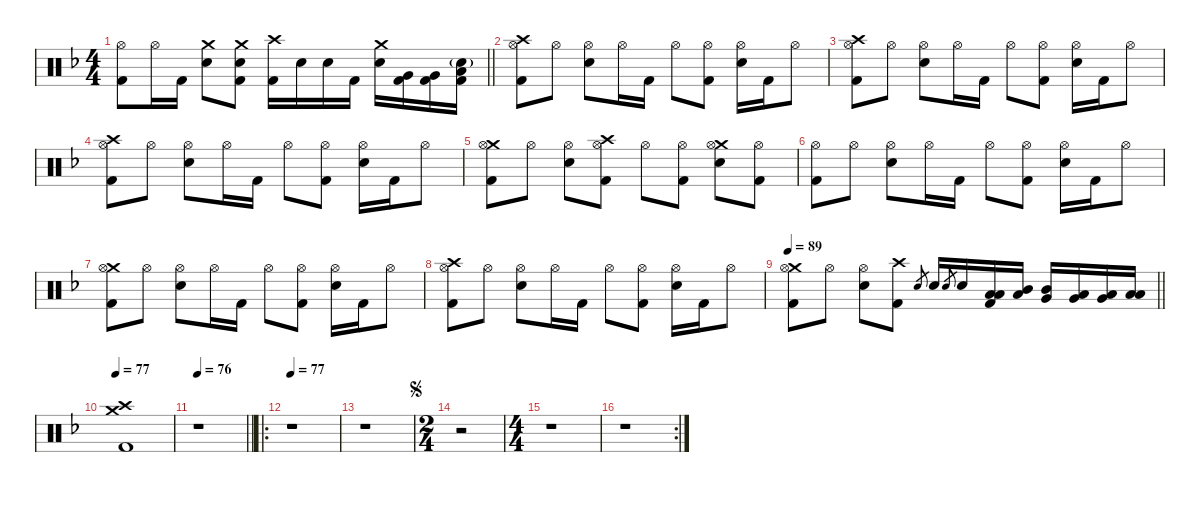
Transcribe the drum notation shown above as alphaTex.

\defaultSystemsLayout 4
\hideDynamics
\bracketExtendMode nobrackets
\singleTrackTrackNamePolicy hidden
\multiTrackTrackNamePolicy hidden
\otherSystemsTrackNameOrientation horizontal
\track ("Martin Lopez - Drums" "drm.") {defaultSystemsLayout 4 instrument percussion}
\staff {score}
\articulation defaults
\ts (4 4)
\tempo (88 hide)
\tempo (89 0.00625 hide)
\clef neutral
\barLineRight lightlight
\ks dminor
("Hi-Hat (open)"{acc forcenatural} "Kick (hit) 2"{acc forcenatural}).8{dy f beam Down} "Hi-Hat (open)"{acc forcenatural}.16{beam Down} "Kick (hit) 2"{acc forcenatural}.16{beam Down} ("Crash medium (hit)"{acc forcenatural} "Snare (hit) 2"{acc forcenatural}).8{beam Down} ("Crash medium (hit)"{acc forcenatural} "Snare (hit) 2"{acc forcenatural} "Kick (hit) 2"{acc forcenatural}).8{beam Down} ("Crash high (hit)"{acc forcenatural} "Kick (hit) 2"{acc forcenatural}).16{beam Down} "Snare (hit) 2"{acc forcenatural}.16{beam Down} "Snare (hit) 2"{acc forcenatural}.16{beam Down} "Kick (hit) 2"{acc forcenatural}.16{beam Down} ("Crash medium (hit)"{acc forcenatural} "Snare (hit) 2"{acc forcenatural}).16{beam Down} ("Very Low Tom (hit)"{acc forcenatural} "Kick (hit) 2"{acc forcenatural}).16{beam Down} ("Very Low Tom (hit)"{acc forcenatural} "Kick (hit) 2"{acc forcenatural}).16{beam Down} ("Low Floor Tom (hit)"{acc forcenatural} "Snare (hit) 2"{g acc forcenatural} "Kick (hit) 2"{acc forcenatural}).16{beam Down} |
\tempo (88 0.0125 hide)
\tempo (89 0.99375 hide)
("Crash high (hit)"{acc forcenatural} "Hi-Hat (open)"{acc forcenatural} "Kick (hit) 2"{acc forcenatural}).8{beam Down} "Hi-Hat (open)"{acc forcenatural}.8{beam Down} ("Hi-Hat (open)"{acc forcenatural} "Snare (hit) 2"{acc forcenatural}).8{beam Down} "Hi-Hat (open)"{acc forcenatural}.16{beam Down} "Kick (hit) 2"{acc forcenatural}.16{beam Down} "Hi-Hat (open)"{acc forcenatural}.8{beam Down} ("Hi-Hat (open)"{acc forcenatural} "Kick (hit) 2"{acc forcenatural}).8{beam Down} ("Hi-Hat (open)"{acc forcenatural} "Snare (hit) 2"{acc forcenatural}).16{beam Down} "Kick (hit) 2"{acc forcenatural}.16{beam Down} "Hi-Hat (open)"{acc forcenatural}.8{beam Down} |
("Crash high (hit)"{acc forcenatural} "Hi-Hat (open)"{acc forcenatural} "Kick (hit) 2"{acc forcenatural}).8{beam Down} "Hi-Hat (open)"{acc forcenatural}.8{beam Down} ("Hi-Hat (open)"{acc forcenatural} "Snare (hit) 2"{acc forcenatural}).8{beam Down} "Hi-Hat (open)"{acc forcenatural}.16{beam Down} "Kick (hit) 2"{acc forcenatural}.16{beam Down} "Hi-Hat (open)"{acc forcenatural}.8{beam Down} ("Hi-Hat (open)"{acc forcenatural} "Kick (hit) 2"{acc forcenatural}).8{beam Down} ("Hi-Hat (open)"{acc forcenatural} "Snare (hit) 2"{acc forcenatural}).16{beam Down} "Kick (hit) 2"{acc forcenatural}.16{beam Down} "Hi-Hat (open)"{acc forcenatural}.8{beam Down} |
\tempo (88 hide)
("Crash high (hit)"{acc forcenatural} "Hi-Hat (open)"{acc forcenatural} "Kick (hit) 2"{acc forcenatural}).8{beam Down} "Hi-Hat (open)"{acc forcenatural}.8{beam Down} ("Hi-Hat (open)"{acc forcenatural} "Snare (hit) 2"{acc forcenatural}).8{beam Down} "Hi-Hat (open)"{acc forcenatural}.16{beam Down} "Kick (hit) 2"{acc forcenatural}.16{beam Down} "Hi-Hat (open)"{acc forcenatural}.8{beam Down} ("Hi-Hat (open)"{acc forcenatural} "Kick (hit) 2"{acc forcenatural}).8{beam Down} ("Hi-Hat (open)"{acc forcenatural} "Snare (hit) 2"{acc forcenatural}).16{beam Down} "Kick (hit) 2"{acc forcenatural}.16{beam Down} "Hi-Hat (open)"{acc forcenatural}.8{beam Down} |
\tempo (89 0.00625 hide)
("Crash medium (hit)"{acc forcenatural} "Hi-Hat (open)"{acc forcenatural} "Kick (hit) 2"{acc forcenatural}).8{beam Down} "Hi-Hat (open)"{acc forcenatural}.8{beam Down} ("Hi-Hat (open)"{acc forcenatural} "Snare (hit) 2"{acc forcenatural}).8{beam Down} ("Crash high (hit)"{acc forcenatural} "Hi-Hat (open)"{acc forcenatural} "Kick (hit) 2"{acc forcenatural}).8{beam Down} "Hi-Hat (open)"{acc forcenatural}.8{beam Down} ("Hi-Hat (open)"{acc forcenatural} "Kick (hit) 2"{acc forcenatural}).8{beam Down} ("Crash medium (hit)"{acc forcenatural} "Hi-Hat (open)"{acc forcenatural} "Snare (hit) 2"{acc forcenatural}).8{beam Down} ("Hi-Hat (open)"{acc forcenatural} "Kick (hit) 2"{acc forcenatural}).8{beam Down} |
\tempo (88 0.00625 hide)
("Hi-Hat (open)"{acc forcenatural} "Kick (hit) 2"{acc forcenatural}).8{beam Down} "Hi-Hat (open)"{acc forcenatural}.8{beam Down} ("Hi-Hat (open)"{acc forcenatural} "Snare (hit) 2"{acc forcenatural}).8{beam Down} "Hi-Hat (open)"{acc forcenatural}.16{beam Down} "Kick (hit) 2"{acc forcenatural}.16{beam Down} "Hi-Hat (open)"{acc forcenatural}.8{beam Down} ("Hi-Hat (open)"{acc forcenatural} "Kick (hit) 2"{acc forcenatural}).8{beam Down} ("Hi-Hat (open)"{acc forcenatural} "Snare (hit) 2"{acc forcenatural}).16{beam Down} "Kick (hit) 2"{acc forcenatural}.16{beam Down} "Hi-Hat (open)"{acc forcenatural}.8{beam Down} |
\tempo (89 0.00625 hide)
("Crash medium (hit)"{acc forcenatural} "Hi-Hat (open)"{acc forcenatural} "Kick (hit) 2"{acc forcenatural}).8{beam Down} "Hi-Hat (open)"{acc forcenatural}.8{beam Down} ("Hi-Hat (open)"{acc forcenatural} "Snare (hit) 2"{acc forcenatural}).8{beam Down} "Hi-Hat (open)"{acc forcenatural}.16{beam Down} "Kick (hit) 2"{acc forcenatural}.16{beam Down} "Hi-Hat (open)"{acc forcenatural}.8{beam Down} ("Hi-Hat (open)"{acc forcenatural} "Kick (hit) 2"{acc forcenatural}).8{beam Down} ("Hi-Hat (open)"{acc forcenatural} "Snare (hit) 2"{acc forcenatural}).16{beam Down} "Kick (hit) 2"{acc forcenatural}.16{beam Down} "Hi-Hat (open)"{acc forcenatural}.8{beam Down} |
\tempo (88 hide)
("Crash high (hit)"{acc forcenatural} "Hi-Hat (open)"{acc forcenatural} "Kick (hit) 2"{acc forcenatural}).8{beam Down} "Hi-Hat (open)"{acc forcenatural}.8{beam Down} ("Hi-Hat (open)"{acc forcenatural} "Snare (hit) 2"{acc forcenatural}).8{beam Down} "Hi-Hat (open)"{acc forcenatural}.16{beam Down} "Kick (hit) 2"{acc forcenatural}.16{beam Down} "Hi-Hat (open)"{acc forcenatural}.8{beam Down} ("Hi-Hat (open)"{acc forcenatural} "Kick (hit) 2"{acc forcenatural}).8{beam Down} ("Hi-Hat (open)"{acc forcenatural} "Snare (hit) 2"{acc forcenatural}).16{beam Down} "Kick (hit) 2"{acc forcenatural}.16{beam Down} "Hi-Hat (open)"{acc forcenatural}.8{beam Down} |
\tempo 89
\barLineRight lightlight
("Crash medium (hit)"{acc forcenatural} "Hi-Hat (open)"{acc forcenatural} "Kick (hit) 2"{acc forcenatural}).8{beam Down} "Hi-Hat (open)"{acc forcenatural}.8{beam Down} ("Hi-Hat (open)"{acc forcenatural} "Snare (hit) 2"{acc forcenatural}).8{beam Down} ("Crash high (hit)"{acc forcenatural} "Kick (hit) 2"{acc forcenatural}).8{beam Down} "Electric Snare (hit)"{acc forcenatural}.8{gr dy pp beam Up} "Snare (hit) 2"{acc forcenatural}.16{dy f beam Up} "Electric Snare (hit)"{acc forcenatural}.8{gr dy p beam Up} "Snare (hit) 2"{acc forcenatural}.16{dy f beam Up} ("Low Tom (hit)"{acc forcenatural} "Low Tom (hit)"{acc forcenatural} "Kick (hit) 2"{acc forcenatural}).16{beam Up} ("Mid Tom (hit)"{acc forcenatural} "Low Tom (hit)"{acc forcenatural}).16{beam Up} ("Mid Tom (hit)"{acc forcenatural} "Very Low Tom (hit)"{acc forcenatural}).16{beam Up} ("Low Tom (hit)"{acc forcenatural} "Very Low Tom (hit)"{acc forcenatural}).16{beam Up} ("Very Low Tom (hit)"{acc forcenatural} "Low Floor Tom (hit)"{acc forcenatural}).16{beam Up} ("Low Floor Tom (hit)"{acc forcenatural} "Low Floor Tom (hit)"{acc forcenatural}).16{beam Up} |
\tempo 77
("Crash medium (hit)"{acc forcenatural} "Crash high (hit)"{acc forcenatural} "Kick (hit) 2"{acc forcenatural}).1{beam Down} |
\tempo 76
\barLineRight lightlight
r.1{beam Down} |
\ro
\tempo 77
r.1{beam Down} |
r.1{beam Down} |
\ts (2 4)
\beaming (8 2 2 2 2)
\jump segno
r.2{beam Down} |
\ts (4 4)
\beaming (8 2 2 2 2)
r.1{beam Down} |
\rc 2
r.1{beam Down}
